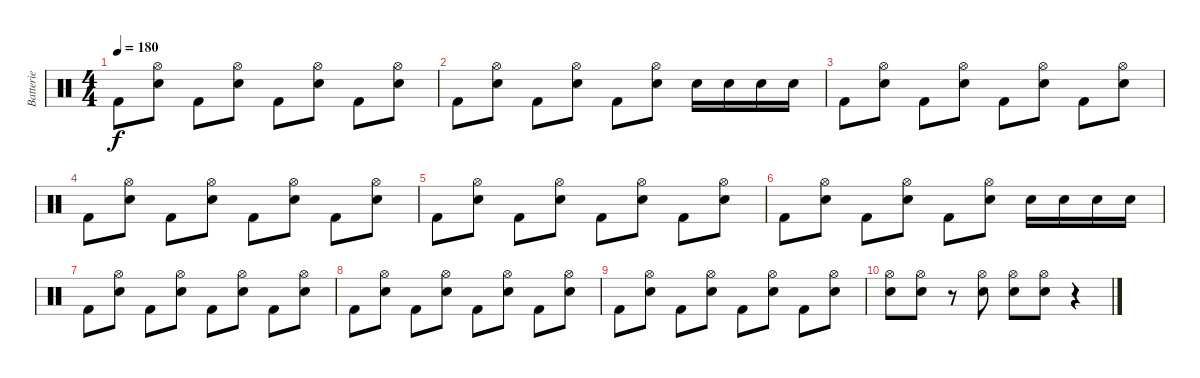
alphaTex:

\track ("Batterie" "Batterie") {instrument percussion}
\staff {score}
\articulation defaults
\ts (4 4)
\tempo 180
\clef neutral
\ks c "Kick (hit) 2".8{dy f}
("Electric Snare (hit)" "Hi-Hat (open)").8 "Kick (hit) 2".8 ("Electric Snare (hit)" "Hi-Hat (open)").8 "Kick (hit) 2".8 ("Electric Snare (hit)" "Hi-Hat (open)").8 "Kick (hit) 2".8 ("Electric Snare (hit)" "Hi-Hat (open)").8 |
"Kick (hit) 2".8 ("Electric Snare (hit)" "Hi-Hat (open)").8 "Kick (hit) 2".8 ("Electric Snare (hit)" "Hi-Hat (open)").8 "Kick (hit) 2".8 ("Electric Snare (hit)" "Hi-Hat (open)").8 "Electric Snare (hit)".16 "Electric Snare (hit)".16 "Electric Snare (hit)".16 "Electric Snare (hit)".16 |
"Kick (hit) 2".8 ("Electric Snare (hit)" "Hi-Hat (open)").8 "Kick (hit) 2".8 ("Electric Snare (hit)" "Hi-Hat (open)").8 "Kick (hit) 2".8 ("Electric Snare (hit)" "Hi-Hat (open)").8 "Kick (hit) 2".8 ("Electric Snare (hit)" "Hi-Hat (open)").8 |
"Kick (hit) 2".8 ("Electric Snare (hit)" "Hi-Hat (open)").8 "Kick (hit) 2".8 ("Electric Snare (hit)" "Hi-Hat (open)").8 "Kick (hit) 2".8 ("Electric Snare (hit)" "Hi-Hat (open)").8 "Kick (hit) 2".8 ("Electric Snare (hit)" "Hi-Hat (open)").8 |
"Kick (hit) 2".8 ("Electric Snare (hit)" "Hi-Hat (open)").8 "Kick (hit) 2".8 ("Electric Snare (hit)" "Hi-Hat (open)").8 "Kick (hit) 2".8 ("Electric Snare (hit)" "Hi-Hat (open)").8 "Kick (hit) 2".8 ("Electric Snare (hit)" "Hi-Hat (open)").8 |
"Kick (hit) 2".8 ("Electric Snare (hit)" "Hi-Hat (open)").8 "Kick (hit) 2".8 ("Electric Snare (hit)" "Hi-Hat (open)").8 "Kick (hit) 2".8 ("Electric Snare (hit)" "Hi-Hat (open)").8 "Electric Snare (hit)".16 "Electric Snare (hit)".16 "Electric Snare (hit)".16 "Electric Snare (hit)".16 |
"Kick (hit) 2".8 ("Electric Snare (hit)" "Hi-Hat (open)").8 "Kick (hit) 2".8 ("Electric Snare (hit)" "Hi-Hat (open)").8 "Kick (hit) 2".8 ("Electric Snare (hit)" "Hi-Hat (open)").8 "Kick (hit) 2".8 ("Electric Snare (hit)" "Hi-Hat (open)").8 |
"Kick (hit) 2".8 ("Electric Snare (hit)" "Hi-Hat (open)").8 "Kick (hit) 2".8 ("Electric Snare (hit)" "Hi-Hat (open)").8 "Kick (hit) 2".8 ("Electric Snare (hit)" "Hi-Hat (open)").8 "Kick (hit) 2".8 ("Electric Snare (hit)" "Hi-Hat (open)").8 |
"Kick (hit) 2".8 ("Electric Snare (hit)" "Hi-Hat (open)").8 "Kick (hit) 2".8 ("Electric Snare (hit)" "Hi-Hat (open)").8 "Kick (hit) 2".8 ("Electric Snare (hit)" "Hi-Hat (open)").8 "Kick (hit) 2".8 ("Electric Snare (hit)" "Hi-Hat (open)").8 |
("Electric Snare (hit)" "Hi-Hat (open)").8 ("Electric Snare (hit)" "Hi-Hat (open)").8 r.8 ("Electric Snare (hit)" "Hi-Hat (open)").8 ("Electric Snare (hit)" "Hi-Hat (open)").8 ("Electric Snare (hit)" "Hi-Hat (open)").8 r.4
